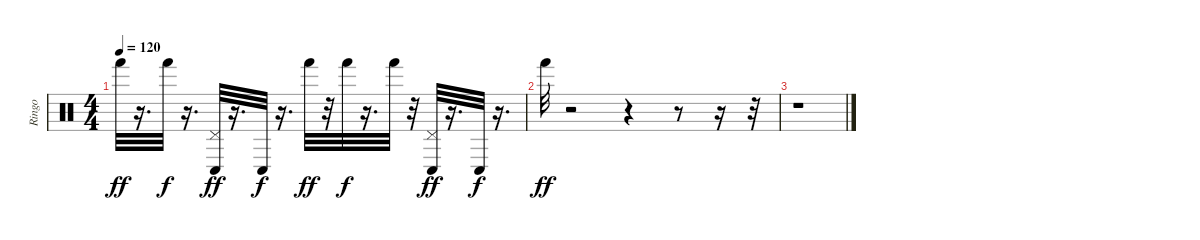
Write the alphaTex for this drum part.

\track ("Ringo" "Ringo") {instrument percussion}
\staff {score}
\articulation defaults
\ts (4 4)
\tempo 120
\clef neutral
\ks c "Hand (hit)".32{dy ff}
r.16{d} "Hand (hit)".32{dy f} r.16{d} ("Conga low (hit)" "Pedal Hi-Hat (hit)").32{dy ff} r.16{d} "Conga low (hit)".32{dy f} r.16{d} "Hand (hit)".32{dy ff} r.32 "Hand (hit)".32{dy f} r.16{d} "Hand (hit)".32 r.32 ("Pedal Hi-Hat (hit)" "Conga low (hit)").32{dy ff} r.16{d} "Conga low (hit)".32{dy f} r.16{d} |
"Hand (hit)".32{dy ff} r.2 r.4 r.8 r.16 r.32 |
r.1
